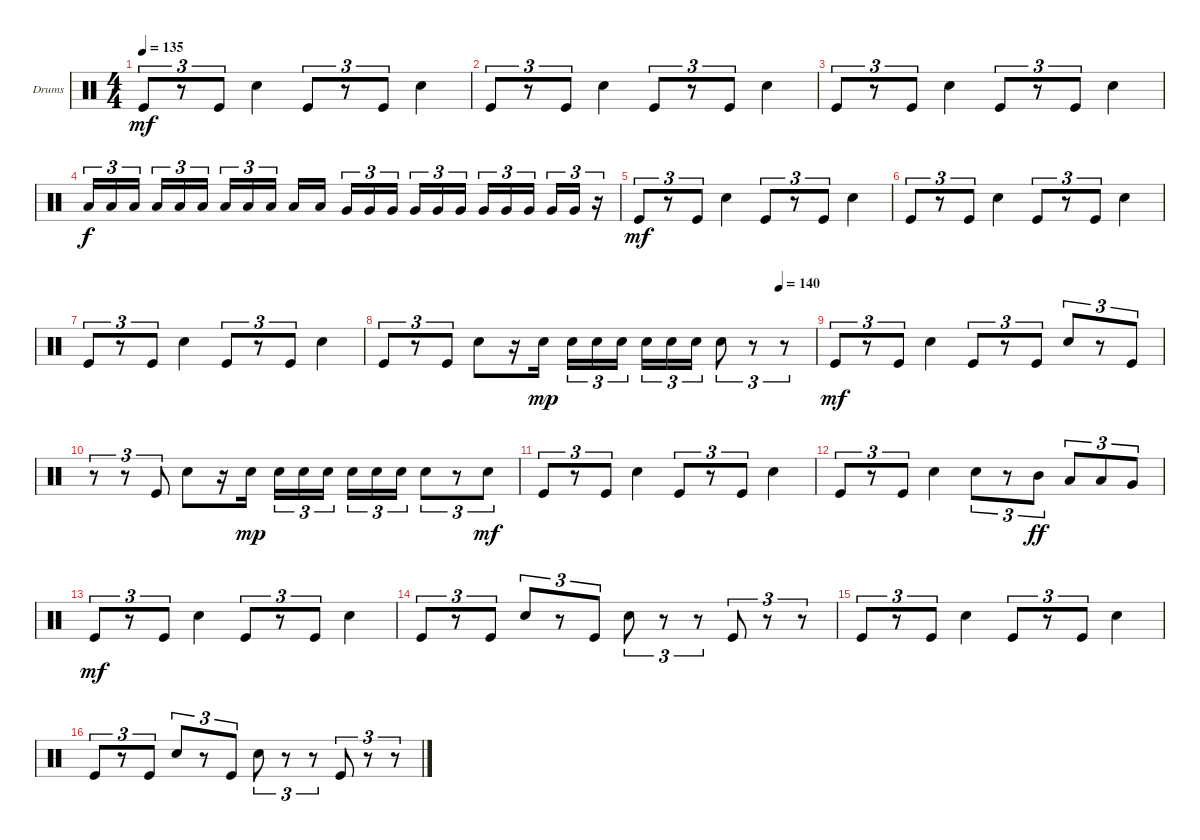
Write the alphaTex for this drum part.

\defaultSystemsLayout 4
\bracketExtendMode groupsimilarinstruments
\firstSystemTrackNameOrientation horizontal
\otherSystemsTrackNameOrientation horizontal
\track ("Drumkit" "Drums") {instrument percussion}
\staff {score}
\articulation defaults
\ts (4 4)
\tempo 135
\clef neutral
\scale
0.333333
\ks c "Kick (hit)".8{tu (3 2) dy mf}
r.8{tu (3 2)} "Kick (hit)".8{tu (3 2)} "Snare (hit) 2".4 "Kick (hit)".8{tu (3 2)} r.8{tu (3 2)} "Kick (hit)".8{tu (3 2)} "Snare (hit) 2".4 |
\scale
0.333333 "Kick (hit)".8{tu (3 2)} r.8{tu (3 2)} "Kick (hit)".8{tu (3 2)} "Snare (hit) 2".4 "Kick (hit)".8{tu (3 2)} r.8{tu (3 2)} "Kick (hit)".8{tu (3 2)} "Snare (hit) 2".4 |
\scale
0.333333 "Kick (hit)".8{tu (3 2)} r.8{tu (3 2)} "Kick (hit)".8{tu (3 2)} "Snare (hit) 2".4 "Kick (hit)".8{tu (3 2)} r.8{tu (3 2)} "Kick (hit)".8{tu (3 2)} "Snare (hit) 2".4 |
\scale
0.333333 "Low Tom (hit)".16{tu (3 2) dy f} "Low Tom (hit)".16{tu (3 2)} "Low Tom (hit)".16{tu (3 2)} "Low Tom (hit)".16{tu (3 2)} "Low Tom (hit)".16{tu (3 2)} "Low Tom (hit)".16{tu (3 2)} "Low Tom (hit)".16{tu (3 2)} "Low Tom (hit)".16{tu (3 2)} "Low Tom (hit)".16{tu (3 2)} "Low Tom (hit)".16 "Low Tom (hit)".16 "Very Low Tom (hit)".16{tu (3 2)} "Very Low Tom (hit)".16{tu (3 2)} "Very Low Tom (hit)".16{tu (3 2)} "Very Low Tom (hit)".16{tu (3 2)} "Very Low Tom (hit)".16{tu (3 2)} "Very Low Tom (hit)".16{tu (3 2)} "Very Low Tom (hit)".16{tu (3 2)} "Very Low Tom (hit)".16{tu (3 2)} "Very Low Tom (hit)".16{tu (3 2)} "Very Low Tom (hit)".16{tu (3 2)} "Very Low Tom (hit)".16{tu (3 2)} r.16{tu (3 2)} |
\scale
0.333333 "Kick (hit)".8{tu (3 2) dy mf} r.8{tu (3 2)} "Kick (hit)".8{tu (3 2)} "Snare (hit) 2".4 "Kick (hit)".8{tu (3 2)} r.8{tu (3 2)} "Kick (hit)".8{tu (3 2)} "Snare (hit) 2".4 |
\scale
0.333333 "Kick (hit)".8{tu (3 2)} r.8{tu (3 2)} "Kick (hit)".8{tu (3 2)} "Snare (hit) 2".4 "Kick (hit)".8{tu (3 2)} r.8{tu (3 2)} "Kick (hit)".8{tu (3 2)} "Snare (hit) 2".4 |
\scale
0.333333 "Kick (hit)".8{tu (3 2)} r.8{tu (3 2)} "Kick (hit)".8{tu (3 2)} "Snare (hit) 2".4 "Kick (hit)".8{tu (3 2)} r.8{tu (3 2)} "Kick (hit)".8{tu (3 2)} "Snare (hit) 2".4 |
\tempo (140 0.916667)
\scale
0.333333 "Kick (hit)".8{tu (3 2)} r.8{tu (3 2)} "Kick (hit)".8{tu (3 2)} "Snare (hit) 2".8 r.16 "Snare (hit) 2".16{dy mp} "Snare (hit) 2".16{tu (3 2)} "Snare (hit) 2".16{tu (3 2)} "Snare (hit) 2".16{tu (3 2)} "Snare (hit) 2".16{tu (3 2)} "Snare (hit) 2".16{tu (3 2)} "Snare (hit) 2".16{tu (3 2)} "Snare (hit) 2".8{tu (3 2)} r.8{tu (3 2)} r.8{tu (3 2)} |
\scale
0.333333 "Kick (hit)".8{tu (3 2) dy mf} r.8{tu (3 2)} "Kick (hit)".8{tu (3 2)} "Snare (hit) 2".4 "Kick (hit)".8{tu (3 2)} r.8{tu (3 2)} "Kick (hit)".8{tu (3 2)} "Snare (hit) 2".8{tu (3 2)} r.8{tu (3 2)} "Kick (hit)".8{tu (3 2)} |
\scale
0.333333 r.8{tu (3 2)} r.8{tu (3 2)} "Kick (hit)".8{tu (3 2)} "Snare (hit) 2".8 r.16 "Snare (hit) 2".16{dy mp} "Snare (hit) 2".16{tu (3 2)} "Snare (hit) 2".16{tu (3 2)} "Snare (hit) 2".16{tu (3 2)} "Snare (hit) 2".16{tu (3 2)} "Snare (hit) 2".16{tu (3 2)} "Snare (hit) 2".16{tu (3 2)} "Snare (hit) 2".8{tu (3 2)} r.8{tu (3 2)} "Snare (hit) 2".8{tu (3 2) dy mf} |
\scale
0.333333 "Kick (hit)".8{tu (3 2)} r.8{tu (3 2)} "Kick (hit)".8{tu (3 2)} "Snare (hit) 2".4 "Kick (hit)".8{tu (3 2)} r.8{tu (3 2)} "Kick (hit)".8{tu (3 2)} "Snare (hit) 2".4 |
\scale
0.333333 "Kick (hit)".8{tu (3 2)} r.8{tu (3 2)} "Kick (hit)".8{tu (3 2)} "Snare (hit) 2".4 "Snare (hit) 2".8{tu (3 2)} r.8{tu (3 2)} "Mid Tom (hit)".8{tu (3 2) dy ff} "Low Tom (hit)".8{tu (3 2)} "Low Tom (hit)".8{tu (3 2)} "Very Low Tom (hit)".8{tu (3 2)} |
\scale
0.333333 "Kick (hit)".8{tu (3 2) dy mf} r.8{tu (3 2)} "Kick (hit)".8{tu (3 2)} "Snare (hit) 2".4 "Kick (hit)".8{tu (3 2)} r.8{tu (3 2)} "Kick (hit)".8{tu (3 2)} "Snare (hit) 2".4 |
\scale
0.333333 "Kick (hit)".8{tu (3 2)} r.8{tu (3 2)} "Kick (hit)".8{tu (3 2)} "Snare (hit) 2".8{tu (3 2)} r.8{tu (3 2)} "Kick (hit)".8{tu (3 2)} "Snare (hit) 2".8{tu (3 2)} r.8{tu (3 2)} r.8{tu (3 2)} "Kick (hit)".8{tu (3 2)} r.8{tu (3 2)} r.8{tu (3 2)} |
\scale
0.333333 "Kick (hit)".8{tu (3 2)} r.8{tu (3 2)} "Kick (hit)".8{tu (3 2)} "Snare (hit) 2".4 "Kick (hit)".8{tu (3 2)} r.8{tu (3 2)} "Kick (hit)".8{tu (3 2)} "Snare (hit) 2".4 |
\scale
0.333333 "Kick (hit)".8{tu (3 2)} r.8{tu (3 2)} "Kick (hit)".8{tu (3 2)} "Snare (hit) 2".8{tu (3 2)} r.8{tu (3 2)} "Kick (hit)".8{tu (3 2)} "Snare (hit) 2".8{tu (3 2)} r.8{tu (3 2)} r.8{tu (3 2)} "Kick (hit)".8{tu (3 2)} r.8{tu (3 2)} r.8{tu (3 2)}
